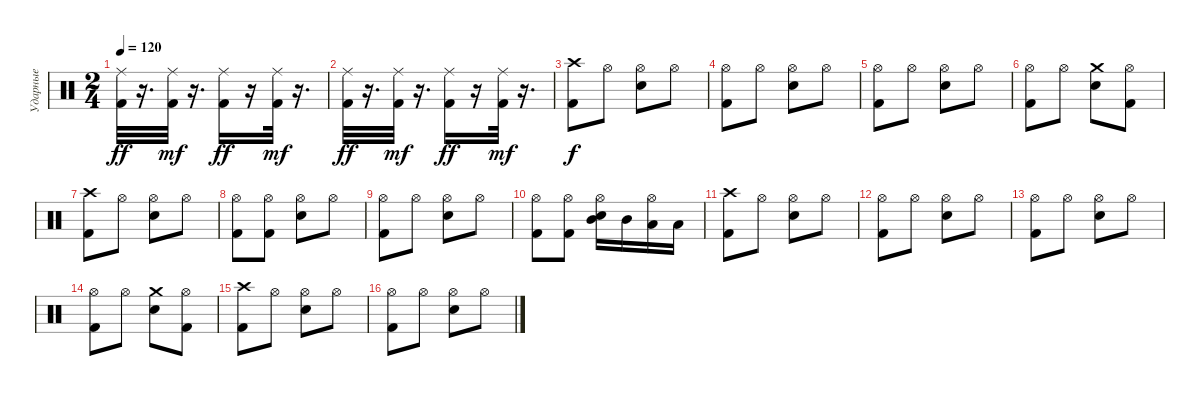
\track ("Ударные" "Ударные") {instrument percussion}
\staff {score}
\articulation defaults
\ts (2 4)
\tempo 120
\clef neutral
\ks c
("Ride (middle)" "Kick (hit) 2").32{dy ff} r.16{d} ("Ride (middle)" "Kick (hit) 2").32{dy mf} r.16{d} ("Ride (middle)" "Kick (hit) 2").16{dy ff} r.16 ("Ride (middle)" "Kick (hit) 2").32{dy mf} r.16{d} |
("Ride (middle)" "Kick (hit) 2").32{dy ff} r.16{d} ("Ride (middle)" "Kick (hit) 2").32{dy mf} r.16{d} ("Ride (middle)" "Kick (hit) 2").16{dy ff} r.16 ("Ride (middle)" "Kick (hit) 2").32{dy mf} r.16{d} |
("Crash high (hit)" "Kick (hit) 2").8{dy f} "Hi-Hat (open)".8 ("Hi-Hat (open)" "Electric Snare (hit)").8 "Hi-Hat (open)".8 |
("Hi-Hat (open)" "Kick (hit) 2").8 "Hi-Hat (open)".8 ("Hi-Hat (open)" "Electric Snare (hit)").8 "Hi-Hat (open)".8 |
("Hi-Hat (open)" "Kick (hit) 2").8 "Hi-Hat (open)".8 ("Hi-Hat (open)" "Electric Snare (hit)").8 "Hi-Hat (open)".8 |
("Hi-Hat (open)" "Kick (hit) 2").8 "Hi-Hat (open)".8 ("Crash medium (hit)" "Electric Snare (hit)").8 ("Hi-Hat (open)" "Kick (hit) 2").8 |
("Crash high (hit)" "Kick (hit) 2").8 "Hi-Hat (open)".8 ("Hi-Hat (open)" "Electric Snare (hit)").8 "Hi-Hat (open)".8 |
("Hi-Hat (open)" "Kick (hit) 2").8 ("Hi-Hat (open)" "Kick (hit) 2").8 ("Hi-Hat (open)" "Electric Snare (hit)").8 "Hi-Hat (open)".8 |
("Hi-Hat (open)" "Kick (hit) 2").8 "Hi-Hat (open)".8 ("Hi-Hat (open)" "Electric Snare (hit)").8 "Hi-Hat (open)".8 |
("Hi-Hat (open)" "Kick (hit) 2").8 ("Hi-Hat (open)" "Kick (hit) 2").8 ("Hi-Hat (open)" "Mid Tom (hit)" "Electric Snare (hit)").16 "Mid Tom (hit)".16 ("Hi-Hat (open)" "Low Tom (hit)").16 "Low Tom (hit)".16 |
("Crash high (hit)" "Kick (hit) 2").8 "Hi-Hat (open)".8 ("Hi-Hat (open)" "Electric Snare (hit)").8 "Hi-Hat (open)".8 |
("Hi-Hat (open)" "Kick (hit) 2").8 "Hi-Hat (open)".8 ("Hi-Hat (open)" "Electric Snare (hit)").8 "Hi-Hat (open)".8 |
("Hi-Hat (open)" "Kick (hit) 2").8 "Hi-Hat (open)".8 ("Hi-Hat (open)" "Electric Snare (hit)").8 "Hi-Hat (open)".8 |
("Hi-Hat (open)" "Kick (hit) 2").8 "Hi-Hat (open)".8 ("Crash medium (hit)" "Electric Snare (hit)").8 ("Hi-Hat (open)" "Kick (hit) 2").8 |
("Crash high (hit)" "Kick (hit) 2").8 "Hi-Hat (open)".8 ("Hi-Hat (open)" "Electric Snare (hit)").8 "Hi-Hat (open)".8 |
("Hi-Hat (open)" "Kick (hit) 2").8 "Hi-Hat (open)".8 ("Hi-Hat (open)" "Electric Snare (hit)").8 "Hi-Hat (open)".8
